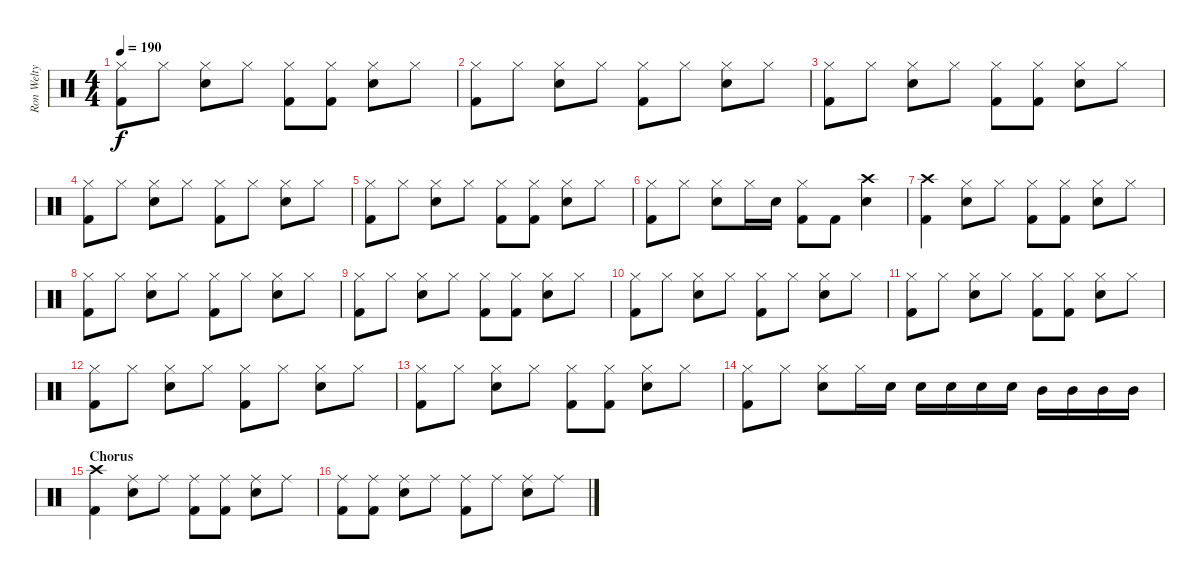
\track ("Ron Welty" "Ron Welty") {instrument percussion}
\staff {score}
\articulation defaults
\ts (4 4)
\tempo 190
\clef neutral
\ks c
("Hi-Hat (closed)" "Kick (hit) 2").8{dy f} "Hi-Hat (closed)".8 ("Hi-Hat (closed)" "Electric Snare (hit)").8 "Hi-Hat (closed)".8 ("Hi-Hat (closed)" "Kick (hit) 2").8 ("Hi-Hat (closed)" "Kick (hit) 2").8 ("Hi-Hat (closed)" "Electric Snare (hit)").8 "Hi-Hat (closed)".8 |
("Hi-Hat (closed)" "Kick (hit) 2").8 "Hi-Hat (closed)".8 ("Hi-Hat (closed)" "Electric Snare (hit)").8 "Hi-Hat (closed)".8 ("Hi-Hat (closed)" "Kick (hit) 2").8 "Hi-Hat (closed)".8 ("Hi-Hat (closed)" "Electric Snare (hit)").8 "Hi-Hat (closed)".8 |
("Hi-Hat (closed)" "Kick (hit) 2").8 "Hi-Hat (closed)".8 ("Hi-Hat (closed)" "Electric Snare (hit)").8 "Hi-Hat (closed)".8 ("Hi-Hat (closed)" "Kick (hit) 2").8 ("Hi-Hat (closed)" "Kick (hit) 2").8 ("Hi-Hat (closed)" "Electric Snare (hit)").8 "Hi-Hat (closed)".8 |
("Hi-Hat (closed)" "Kick (hit) 2").8 "Hi-Hat (closed)".8 ("Hi-Hat (closed)" "Electric Snare (hit)").8 "Hi-Hat (closed)".8 ("Hi-Hat (closed)" "Kick (hit) 2").8 "Hi-Hat (closed)".8 ("Hi-Hat (closed)" "Electric Snare (hit)").8 "Hi-Hat (closed)".8 |
("Hi-Hat (closed)" "Kick (hit) 2").8 "Hi-Hat (closed)".8 ("Hi-Hat (closed)" "Electric Snare (hit)").8 "Hi-Hat (closed)".8 ("Hi-Hat (closed)" "Kick (hit) 2").8 ("Hi-Hat (closed)" "Kick (hit) 2").8 ("Hi-Hat (closed)" "Electric Snare (hit)").8 "Hi-Hat (closed)".8 |
("Hi-Hat (closed)" "Kick (hit) 2").8 "Hi-Hat (closed)".8 ("Hi-Hat (closed)" "Electric Snare (hit)").8 "Hi-Hat (closed)".16 "Electric Snare (hit)".16 ("Hi-Hat (closed)" "Kick (hit) 2").8 "Kick (hit) 2".8 ("Crash high (hit)" "Electric Snare (hit)").4 |
("Crash high (hit)" "Kick (hit) 2").4 ("Hi-Hat (closed)" "Electric Snare (hit)").8 "Hi-Hat (closed)".8 ("Hi-Hat (closed)" "Kick (hit) 2").8 ("Hi-Hat (closed)" "Kick (hit) 2").8 ("Hi-Hat (closed)" "Electric Snare (hit)").8 "Hi-Hat (closed)".8 |
("Hi-Hat (closed)" "Kick (hit) 2").8 "Hi-Hat (closed)".8 ("Hi-Hat (closed)" "Electric Snare (hit)").8 "Hi-Hat (closed)".8 ("Hi-Hat (closed)" "Kick (hit) 2").8 "Hi-Hat (closed)".8 ("Hi-Hat (closed)" "Electric Snare (hit)").8 "Hi-Hat (closed)".8 |
("Hi-Hat (closed)" "Kick (hit) 2").8 "Hi-Hat (closed)".8 ("Hi-Hat (closed)" "Electric Snare (hit)").8 "Hi-Hat (closed)".8 ("Hi-Hat (closed)" "Kick (hit) 2").8 ("Hi-Hat (closed)" "Kick (hit) 2").8 ("Hi-Hat (closed)" "Electric Snare (hit)").8 "Hi-Hat (closed)".8 |
("Hi-Hat (closed)" "Kick (hit) 2").8 "Hi-Hat (closed)".8 ("Hi-Hat (closed)" "Electric Snare (hit)").8 "Hi-Hat (closed)".8 ("Hi-Hat (closed)" "Kick (hit) 2").8 "Hi-Hat (closed)".8 ("Hi-Hat (closed)" "Electric Snare (hit)").8 "Hi-Hat (closed)".8 |
("Hi-Hat (closed)" "Kick (hit) 2").8 "Hi-Hat (closed)".8 ("Hi-Hat (closed)" "Electric Snare (hit)").8 "Hi-Hat (closed)".8 ("Hi-Hat (closed)" "Kick (hit) 2").8 ("Hi-Hat (closed)" "Kick (hit) 2").8 ("Hi-Hat (closed)" "Electric Snare (hit)").8 "Hi-Hat (closed)".8 |
("Hi-Hat (closed)" "Kick (hit) 2").8 "Hi-Hat (closed)".8 ("Hi-Hat (closed)" "Electric Snare (hit)").8 "Hi-Hat (closed)".8 ("Hi-Hat (closed)" "Kick (hit) 2").8 "Hi-Hat (closed)".8 ("Hi-Hat (closed)" "Electric Snare (hit)").8 "Hi-Hat (closed)".8 |
("Hi-Hat (closed)" "Kick (hit) 2").8 "Hi-Hat (closed)".8 ("Hi-Hat (closed)" "Electric Snare (hit)").8 "Hi-Hat (closed)".8 ("Hi-Hat (closed)" "Kick (hit) 2").8 ("Hi-Hat (closed)" "Kick (hit) 2").8 ("Hi-Hat (closed)" "Electric Snare (hit)").8 "Hi-Hat (closed)".8 |
("Hi-Hat (closed)" "Kick (hit) 2").8 "Hi-Hat (closed)".8 ("Hi-Hat (closed)" "Electric Snare (hit)").8 "Hi-Hat (closed)".16 "Electric Snare (hit)".16 "Electric Snare (hit)".16 "Electric Snare (hit)".16 "Electric Snare (hit)".16 "Electric Snare (hit)".16 "Mid Tom (hit)".16 "Mid Tom (hit)".16 "Mid Tom (hit)".16 "Mid Tom (hit)".16 |
\section ("" "Chorus")
("Crash high (hit)" "Kick (hit) 2").4 ("Ride (middle)" "Electric Snare (hit)").8 "Ride (middle)".8 ("Ride (middle)" "Kick (hit) 2").8 ("Ride (middle)" "Kick (hit) 2").8 ("Ride (middle)" "Electric Snare (hit)").8 "Ride (middle)".8 |
("Ride (middle)" "Kick (hit) 2").8 ("Ride (middle)" "Kick (hit) 2").8 ("Ride (middle)" "Electric Snare (hit)").8 "Ride (middle)".8 ("Ride (middle)" "Kick (hit) 2").8 "Ride (middle)".8 ("Ride (middle)" "Electric Snare (hit)").8 "Ride (middle)".8
